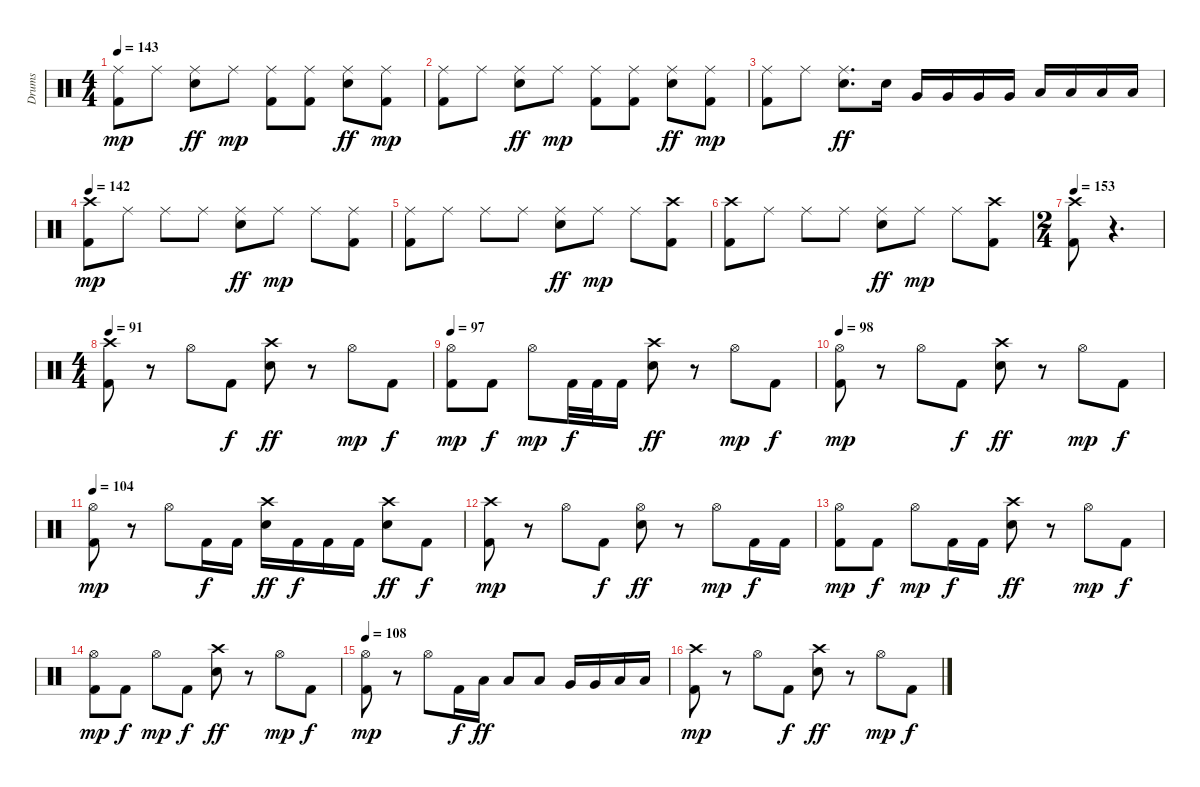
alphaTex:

\track ("Drums" "Drums") {instrument percussion}
\staff {score}
\articulation defaults
\ts (4 4)
\tempo 143
\clef neutral
\ks c
("Ride (middle)" "Kick (hit) 2").8{dy mp} "Ride (middle)".8 ("Ride (middle)" "Electric Snare (hit)").8{dy ff} "Ride (middle)".8{dy mp} ("Ride (middle)" "Kick (hit) 2").8 ("Ride (middle)" "Kick (hit) 2").8 ("Ride (middle)" "Electric Snare (hit)").8{dy ff} ("Ride (middle)" "Kick (hit) 2").8{dy mp} |
("Ride (middle)" "Kick (hit) 2").8 "Ride (middle)".8 ("Ride (middle)" "Electric Snare (hit)").8{dy ff} "Ride (middle)".8{dy mp} ("Ride (middle)" "Kick (hit) 2").8 ("Ride (middle)" "Kick (hit) 2").8 ("Ride (middle)" "Electric Snare (hit)").8{dy ff} ("Ride (middle)" "Kick (hit) 2").8{dy mp} |
("Ride (middle)" "Kick (hit) 2").8 "Ride (middle)".8 ("Ride (middle)" "Electric Snare (hit)").8{d dy ff} "Electric Snare (hit)".16 "Very Low Tom (hit)".16 "Very Low Tom (hit)".16 "Very Low Tom (hit)".16 "Very Low Tom (hit)".16 "Low Floor Tom (hit)".16 "Low Floor Tom (hit)".16 "Low Floor Tom (hit)".16 "Low Floor Tom (hit)".16 |
\tempo 142
("Crash high (hit)" "Kick (hit) 2").8{dy mp} "Ride (middle)".8 "Ride (middle)".8 "Ride (middle)".8 ("Ride (middle)" "Electric Snare (hit)").8{dy ff} "Ride (middle)".8{dy mp} "Ride (middle)".8 ("Ride (middle)" "Kick (hit) 2").8 |
("Ride (middle)" "Kick (hit) 2").8 "Ride (middle)".8 "Ride (middle)".8 "Ride (middle)".8 ("Ride (middle)" "Electric Snare (hit)").8{dy ff} "Ride (middle)".8{dy mp} "Ride (middle)".8 ("Crash high (hit)" "Kick (hit) 2").8 |
("Crash high (hit)" "Kick (hit) 2").8 "Ride (middle)".8 "Ride (middle)".8 "Ride (middle)".8 ("Ride (middle)" "Electric Snare (hit)").8{dy ff} "Ride (middle)".8{dy mp} "Ride (middle)".8 ("Crash high (hit)" "Kick (hit) 2").8 |
\ts (2 4)
\tempo 153
("Crash high (hit)" "Kick (hit) 2").8 r.4{d} |
\ts (4 4)
\tempo 91
("Crash high (hit)" "Kick (hit) 2").8 r.8 "Hi-Hat (open)".8 "Kick (hit) 2".8{dy f} ("Crash high (hit)" "Electric Snare (hit)").8{dy ff} r.8 "Hi-Hat (open)".8{dy mp} "Kick (hit) 2".8{dy f} |
\tempo 97
("Hi-Hat (open)" "Kick (hit) 2").8{dy mp} "Kick (hit) 2".8{dy f} "Hi-Hat (open)".8{dy mp} "Kick (hit) 2".32{dy f} "Kick (hit) 2".32 "Kick (hit) 2".16 ("Crash high (hit)" "Electric Snare (hit)").8{dy ff} r.8 "Hi-Hat (open)".8{dy mp} "Kick (hit) 2".8{dy f} |
\tempo 98
("Hi-Hat (open)" "Kick (hit) 2").8{dy mp} r.8 "Hi-Hat (open)".8 "Kick (hit) 2".8{dy f} ("Crash high (hit)" "Electric Snare (hit)").8{dy ff} r.8 "Hi-Hat (open)".8{dy mp} "Kick (hit) 2".8{dy f} |
\tempo 104
("Hi-Hat (open)" "Kick (hit) 2").8{dy mp} r.8 "Hi-Hat (open)".8 "Kick (hit) 2".16{dy f} "Kick (hit) 2".16 ("Crash high (hit)" "Electric Snare (hit)").16{dy ff} "Kick (hit) 2".16{dy f} "Kick (hit) 2".16 "Kick (hit) 2".16 ("Crash high (hit)" "Electric Snare (hit)").8{dy ff} "Kick (hit) 2".8{dy f} |
("Crash high (hit)" "Kick (hit) 2").8{dy mp} r.8 "Hi-Hat (open)".8 "Kick (hit) 2".8{dy f} ("Hi-Hat (open)" "Electric Snare (hit)").8{dy ff} r.8 "Hi-Hat (open)".8{dy mp} "Kick (hit) 2".16{dy f} "Kick (hit) 2".16 |
("Hi-Hat (open)" "Kick (hit) 2").8{dy mp} "Kick (hit) 2".8{dy f} "Hi-Hat (open)".8{dy mp} "Kick (hit) 2".16{dy f} "Kick (hit) 2".16 ("Crash high (hit)" "Electric Snare (hit)").8{dy ff} r.8 "Hi-Hat (open)".8{dy mp} "Kick (hit) 2".8{dy f} |
("Hi-Hat (open)" "Kick (hit) 2").8{dy mp} "Kick (hit) 2".8{dy f} "Hi-Hat (open)".8{dy mp} "Kick (hit) 2".8{dy f} ("Crash high (hit)" "Electric Snare (hit)").8{dy ff} r.8 "Hi-Hat (open)".8{dy mp} "Kick (hit) 2".8{dy f} |
\tempo 108
("Hi-Hat (open)" "Kick (hit) 2").8{dy mp} r.8 "Hi-Hat (open)".8 "Kick (hit) 2".16{dy f} "Low Tom (hit)".16{dy ff} "Low Tom (hit)".8 "Low Tom (hit)".8 "Very Low Tom (hit)".16 "Very Low Tom (hit)".16 "Low Floor Tom (hit)".16 "Low Floor Tom (hit)".16 |
("Crash high (hit)" "Kick (hit) 2").8{dy mp} r.8 "Hi-Hat (open)".8 "Kick (hit) 2".8{dy f} ("Crash high (hit)" "Electric Snare (hit)").8{dy ff} r.8 "Hi-Hat (open)".8{dy mp} "Kick (hit) 2".8{dy f}
